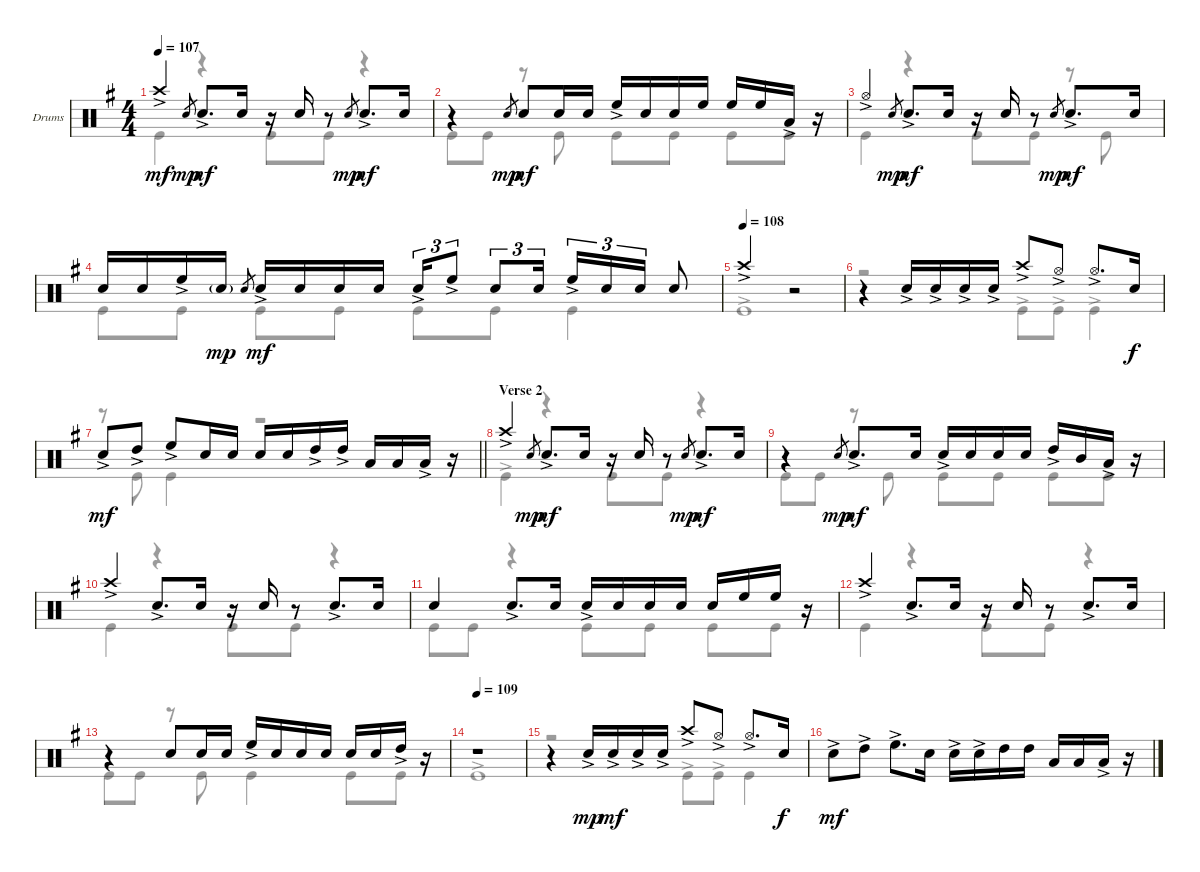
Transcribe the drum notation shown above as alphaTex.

\bracketExtendMode groupsimilarinstruments
\firstSystemTrackNameOrientation horizontal
\otherSystemsTrackNameOrientation horizontal
\track ("Drumkit" "Drums") {instrument percussion}
\staff {score}
\articulation defaults
\voice
\ts (4 4)
\tempo 107
\clef neutral
\ks g "Crash high (hit)"{ac}.4{dy mf} "Snare (hit) 2".8{gr dy mp} "Snare (hit) 2"{ac}.8{d dy mf} "Snare (hit) 2".16
r.16 "Snare (hit) 2".16 r.8 "Snare (hit) 2".8{gr dy mp} "Snare (hit) 2"{ac}.8{d dy mf} "Snare (hit) 2".16 |
r.4 "Snare (hit) 2".8{gr dy mp} "Snare (hit) 2".8{dy mf} "Snare (hit) 2".16 "Snare (hit) 2".16 "High Floor Tom (hit)"{ac}.16 "Snare (hit) 2".16 "Snare (hit) 2".16 "High Floor Tom (hit)".16 "High Floor Tom (hit)".16 "High Floor Tom (hit)".16 "Low Tom (hit)"{ac}.16 r.16 |
"Hi-Hat (open)"{ac}.4 "Snare (hit) 2".8{gr dy mp} "Snare (hit) 2"{ac}.8{d dy mf} "Snare (hit) 2".16 r.16 "Snare (hit) 2".16 r.8 "Snare (hit) 2".8{gr dy mp} "Snare (hit) 2"{ac}.8{d dy mf} "Snare (hit) 2".16 |
"Snare (hit) 2".16 "Snare (hit) 2".16 "High Floor Tom (hit)"{ac}.16 "Snare (hit) 2"{g}.16{dy mp} "Snare (hit) 2".8{gr} "Snare (hit) 2"{ac}.16{dy mf} "Snare (hit) 2".16 "Snare (hit) 2".16 "Snare (hit) 2".16 "Snare (hit) 2"{ac}.16{tu (3 2)} "High Floor Tom (hit)"{ac}.8{tu (3 2)} "Snare (hit) 2".8{tu (3 2)} "Snare (hit) 2".16{tu (3 2)} "High Floor Tom (hit)"{ac}.16{tu (3 2)} "Snare (hit) 2".16{tu (3 2)} "Snare (hit) 2".16{tu (3 2)} "Snare (hit) 2".8 |
\tempo (108)
"Crash high (hit)"{ac}.2 r.2 |
r.4 "Snare (hit) 2"{ac}.16 "Snare (hit) 2"{ac}.16 "Snare (hit) 2"{ac}.16 "Snare (hit) 2"{ac}.16 "Crash high (hit)"{ac}.8 "Hi-Hat (open)"{ac}.8 "Hi-Hat (open)"{ac}.8{d} "Snare (hit) 2".16{dy f} |
\barLineRight lightlight "Snare (hit) 2"{ac}.8{dy mf} "High Tom (hit)"{ac}.8 "High Floor Tom (hit)"{ac}.8 "Snare (hit) 2".16 "Snare (hit) 2".16 "Snare (hit) 2".16 "Snare (hit) 2".16 "High Tom (hit)"{ac}.16 "High Tom (hit)"{ac}.16 "Low Tom (hit)".16 "Low Tom (hit)".16 "Low Tom (hit)"{ac}.16
r.16 |
\section ("" "Verse 2")
"Crash high (hit)"{ac}.4 "Snare (hit) 2".8{gr dy mp} "Snare (hit) 2"{ac}.8{d dy mf} "Snare (hit) 2".16 r.16 "Snare (hit) 2".16 r.8 "Snare (hit) 2".8{gr dy mp} "Snare (hit) 2"{ac}.8{d dy mf} "Snare (hit) 2".16 |
r.4 "Snare (hit) 2".8{gr dy mp} "Snare (hit) 2"{ac}.8{d dy mf} "Snare (hit) 2".16 "Snare (hit) 2"{ac}.16 "Snare (hit) 2".16 "Snare (hit) 2".16 "Snare (hit) 2".16 "High Tom (hit)"{ac}.16 "Mid Tom (hit)".16 "Low Tom (hit)"{ac}.16 r.16 |
"Crash high (hit)"{ac}.4 "Snare (hit) 2"{ac}.8{d} "Snare (hit) 2".16 r.16 "Snare (hit) 2".16 r.8 "Snare (hit) 2"{ac}.8{d} "Snare (hit) 2".16 |
"Snare (hit) 2".4 "Snare (hit) 2"{ac}.8{d} "Snare (hit) 2".16 "Snare (hit) 2"{ac}.16 "Snare (hit) 2".16 "Snare (hit) 2".16 "Snare (hit) 2".16 "Snare (hit) 2".16 "High Floor Tom (hit)".16 "High Floor Tom (hit)".16 r.16 |
"Crash high (hit)"{ac}.4 "Snare (hit) 2"{ac}.8{d} "Snare (hit) 2".16 r.16 "Snare (hit) 2".16 r.8 "Snare (hit) 2"{ac}.8{d} "Snare (hit) 2".16 |
r.4 "Snare (hit) 2".8 "Snare (hit) 2".16 "Snare (hit) 2".16 "High Floor Tom (hit)"{ac}.16 "Snare (hit) 2".16 "Snare (hit) 2".16 "Snare (hit) 2".16 "Snare (hit) 2".16 "Snare (hit) 2".16 "High Tom (hit)"{ac}.16 r.16 |
\tempo 109
r.1 |
r.4 "Snare (hit) 2"{ac}.16{dy mp} "Snare (hit) 2"{ac}.16{dy mf} "Snare (hit) 2"{ac}.16 "Snare (hit) 2"{ac}.16 "Crash high (hit)"{ac}.8 "Hi-Hat (open)"{ac}.8 "Hi-Hat (open)"{ac}.8{d} "Snare (hit) 2".16{dy f} |
"Snare (hit) 2"{ac}.8{dy mf} "High Tom (hit)"{ac}.8 "High Floor Tom (hit)"{ac}.8{d} "Snare (hit) 2".16 "Snare (hit) 2"{ac}.16 "Snare (hit) 2"{ac}.16 "High Tom (hit)".16 "High Tom (hit)".16 "Low Tom (hit)".16 "Low Tom (hit)".16 "Low Tom (hit)"{ac}.16 r.16
\voice
\clef neutral
\ottava regular
\simile none
\ks g "Kick (hit)".4{dy mf}
r.4 "Kick (hit)".8 "Kick (hit)".8 r.4 |
"Kick (hit)".8 "Kick (hit)".8 r.8 "Kick (hit)".8 "Kick (hit)".8 "Kick (hit)".8 "Kick (hit)".8 "Kick (hit)".8 |
"Kick (hit)".4 r.4 "Kick (hit)".8 "Kick (hit)".8 r.8 "Kick (hit)".8 |
"Kick (hit)".8 "Kick (hit)".8 "Kick (hit)".8 "Kick (hit)".8 "Kick (hit)".8 "Kick (hit)".8 "Kick (hit)".4 |
"Kick (hit)"{ac}.1 |
r.2 "Kick (hit)"{ac}.8 "Kick (hit)"{ac}.8 "Kick (hit)"{ac}.4 |
\barLineRight lightlight
r.8 "Kick (hit)".8 "Kick (hit)".4 r.2 |
"Kick (hit)"{ac}.4 r.4 "Kick (hit)".8 "Kick (hit)".8 r.4 |
"Kick (hit)".8 "Kick (hit)".8 r.8 "Kick (hit)".8 "Kick (hit)".8 "Kick (hit)".8 "Kick (hit)".8 "Kick (hit)".8 |
"Kick (hit)".4 r.4 "Kick (hit)".8 "Kick (hit)".8 r.4 |
"Kick (hit)".8 "Kick (hit)".8 r.4 "Kick (hit)".8 "Kick (hit)".8 "Kick (hit)".8 "Kick (hit)".8 |
"Kick (hit)".4 r.4 "Kick (hit)".8 "Kick (hit)".8 r.4 |
"Kick (hit)".8 "Kick (hit)".8 r.8 "Kick (hit)".8 "Kick (hit)".4 "Kick (hit)".8 "Kick (hit)".8 |
"Kick (hit)"{ac}.1 |
r.2 "Kick (hit)"{ac}.8 "Kick (hit)"{ac}.8 "Kick (hit)".4 |
